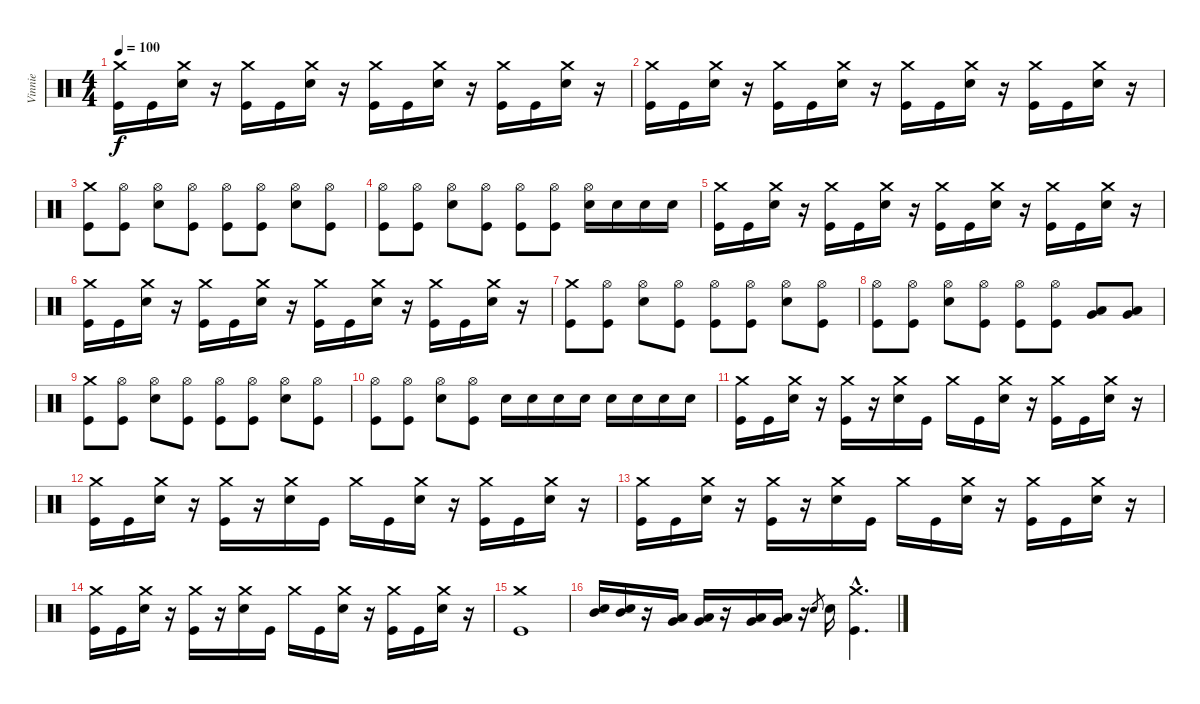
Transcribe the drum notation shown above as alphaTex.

\track ("Vinnie" "Vinnie") {instrument percussion}
\staff {score}
\articulation defaults
\ts (4 4)
\tempo 100
\clef neutral
\ks c
("Crash medium (hit)" "Kick (hit)").16{dy f} "Kick (hit)".16 ("Crash medium (hit)" "Electric Snare (hit)").16 r.16 ("Crash medium (hit)" "Kick (hit)").16 "Kick (hit)".16 ("Crash medium (hit)" "Electric Snare (hit)").16 r.16 ("Crash medium (hit)" "Kick (hit)").16 "Kick (hit)".16 ("Crash medium (hit)" "Electric Snare (hit)").16 r.16 ("Crash medium (hit)" "Kick (hit)").16 "Kick (hit)".16 ("Crash medium (hit)" "Electric Snare (hit)").16 r.16 |
("Crash medium (hit)" "Kick (hit)").16 "Kick (hit)".16 ("Crash medium (hit)" "Electric Snare (hit)").16 r.16 ("Crash medium (hit)" "Kick (hit)").16 "Kick (hit)".16 ("Crash medium (hit)" "Electric Snare (hit)").16 r.16 ("Crash medium (hit)" "Kick (hit)").16 "Kick (hit)".16 ("Crash medium (hit)" "Electric Snare (hit)").16 r.16 ("Crash medium (hit)" "Kick (hit)").16 "Kick (hit)".16 ("Crash medium (hit)" "Electric Snare (hit)").16 r.16 |
("Crash medium (hit)" "Kick (hit)").8 ("Hi-Hat (open)" "Kick (hit)").8 ("Hi-Hat (open)" "Electric Snare (hit)").8 ("Hi-Hat (open)" "Kick (hit)").8 ("Hi-Hat (open)" "Kick (hit)").8 ("Hi-Hat (open)" "Kick (hit)").8 ("Hi-Hat (open)" "Electric Snare (hit)").8 ("Hi-Hat (open)" "Kick (hit)").8 |
("Hi-Hat (open)" "Kick (hit)").8 ("Hi-Hat (open)" "Kick (hit)").8 ("Hi-Hat (open)" "Electric Snare (hit)").8 ("Hi-Hat (open)" "Kick (hit)").8 ("Hi-Hat (open)" "Kick (hit)").8 ("Hi-Hat (open)" "Kick (hit)").8 ("Hi-Hat (open)" "Electric Snare (hit)").16 "Electric Snare (hit)".16 "Electric Snare (hit)".16 "Electric Snare (hit)".16 |
("Crash medium (hit)" "Kick (hit)").16 "Kick (hit)".16 ("Crash medium (hit)" "Electric Snare (hit)").16 r.16 ("Crash medium (hit)" "Kick (hit)").16 "Kick (hit)".16 ("Crash medium (hit)" "Electric Snare (hit)").16 r.16 ("Crash medium (hit)" "Kick (hit)").16 "Kick (hit)".16 ("Crash medium (hit)" "Electric Snare (hit)").16 r.16 ("Crash medium (hit)" "Kick (hit)").16 "Kick (hit)".16 ("Crash medium (hit)" "Electric Snare (hit)").16 r.16 |
("Crash medium (hit)" "Kick (hit)").16 "Kick (hit)".16 ("Crash medium (hit)" "Electric Snare (hit)").16 r.16 ("Crash medium (hit)" "Kick (hit)").16 "Kick (hit)".16 ("Crash medium (hit)" "Electric Snare (hit)").16 r.16 ("Crash medium (hit)" "Kick (hit)").16 "Kick (hit)".16 ("Crash medium (hit)" "Electric Snare (hit)").16 r.16 ("Crash medium (hit)" "Kick (hit)").16 "Kick (hit)".16 ("Crash medium (hit)" "Electric Snare (hit)").16 r.16 |
("Crash medium (hit)" "Kick (hit)").8 ("Hi-Hat (open)" "Kick (hit)").8 ("Hi-Hat (open)" "Electric Snare (hit)").8 ("Hi-Hat (open)" "Kick (hit)").8 ("Hi-Hat (open)" "Kick (hit)").8 ("Hi-Hat (open)" "Kick (hit)").8 ("Hi-Hat (open)" "Electric Snare (hit)").8 ("Hi-Hat (open)" "Kick (hit)").8 |
("Hi-Hat (open)" "Kick (hit)").8 ("Hi-Hat (open)" "Kick (hit)").8 ("Hi-Hat (open)" "Electric Snare (hit)").8 ("Hi-Hat (open)" "Kick (hit)").8 ("Hi-Hat (open)" "Kick (hit)").8 ("Hi-Hat (open)" "Kick (hit)").8 ("Low Tom (hit)" "Very Low Tom (hit)").8 ("Low Tom (hit)" "Very Low Tom (hit)").8 |
("Crash medium (hit)" "Kick (hit)").8 ("Hi-Hat (open)" "Kick (hit)").8 ("Hi-Hat (open)" "Electric Snare (hit)").8 ("Hi-Hat (open)" "Kick (hit)").8 ("Hi-Hat (open)" "Kick (hit)").8 ("Hi-Hat (open)" "Kick (hit)").8 ("Hi-Hat (open)" "Electric Snare (hit)").8 ("Hi-Hat (open)" "Kick (hit)").8 |
("Hi-Hat (open)" "Kick (hit)").8 ("Hi-Hat (open)" "Kick (hit)").8 ("Hi-Hat (open)" "Electric Snare (hit)").8 ("Hi-Hat (open)" "Kick (hit)").8 "Electric Snare (hit)".16 "Electric Snare (hit)".16 "Electric Snare (hit)".16 "Electric Snare (hit)".16 "Electric Snare (hit)".16 "Electric Snare (hit)".16 "Electric Snare (hit)".16 "Electric Snare (hit)".16 |
("Crash medium (hit)" "Kick (hit)").16 "Kick (hit)".16 ("Crash medium (hit)" "Electric Snare (hit)").16 r.16 ("Crash medium (hit)" "Kick (hit)").16 r.16 ("Crash medium (hit)" "Electric Snare (hit)").16 "Kick (hit)".16 "Crash medium (hit)".16 "Kick (hit)".16 ("Crash medium (hit)" "Electric Snare (hit)").16 r.16 ("Crash medium (hit)" "Kick (hit)").16 "Kick (hit)".16 ("Crash medium (hit)" "Electric Snare (hit)").16 r.16 |
("Crash medium (hit)" "Kick (hit)").16 "Kick (hit)".16 ("Crash medium (hit)" "Electric Snare (hit)").16 r.16 ("Crash medium (hit)" "Kick (hit)").16 r.16 ("Crash medium (hit)" "Electric Snare (hit)").16 "Kick (hit)".16 "Crash medium (hit)".16 "Kick (hit)".16 ("Crash medium (hit)" "Electric Snare (hit)").16 r.16 ("Crash medium (hit)" "Kick (hit)").16 "Kick (hit)".16 ("Crash medium (hit)" "Electric Snare (hit)").16 r.16 |
("Crash medium (hit)" "Kick (hit)").16 "Kick (hit)".16 ("Crash medium (hit)" "Electric Snare (hit)").16 r.16 ("Crash medium (hit)" "Kick (hit)").16 r.16 ("Crash medium (hit)" "Electric Snare (hit)").16 "Kick (hit)".16 "Crash medium (hit)".16 "Kick (hit)".16 ("Crash medium (hit)" "Electric Snare (hit)").16 r.16 ("Crash medium (hit)" "Kick (hit)").16 "Kick (hit)".16 ("Crash medium (hit)" "Electric Snare (hit)").16 r.16 |
("Crash medium (hit)" "Kick (hit)").16 "Kick (hit)".16 ("Crash medium (hit)" "Electric Snare (hit)").16 r.16 ("Crash medium (hit)" "Kick (hit)").16 r.16 ("Crash medium (hit)" "Electric Snare (hit)").16 "Kick (hit)".16 "Crash medium (hit)".16 "Kick (hit)".16 ("Crash medium (hit)" "Electric Snare (hit)").16 r.16 ("Crash medium (hit)" "Kick (hit)").16 "Kick (hit)".16 ("Crash medium (hit)" "Electric Snare (hit)").16 r.16 |
("Crash medium (hit)" "Kick (hit)").1 |
("Mid Tom (hit)" "Electric Snare (hit)").16 ("Mid Tom (hit)" "Electric Snare (hit)").16 r.16 ("Very Low Tom (hit)" "Low Tom (hit)").16 ("Very Low Tom (hit)" "Low Tom (hit)").16 r.16 ("Low Floor Tom (hit)" "Very Low Tom (hit)").16 ("Low Floor Tom (hit)" "Very Low Tom (hit)").16 r.16 "Electric Snare (hit)".8{gr} "Electric Snare (hit)".16 ("Crash medium (hit)"{hac} "Kick (hit)"{hac}).4{d}
